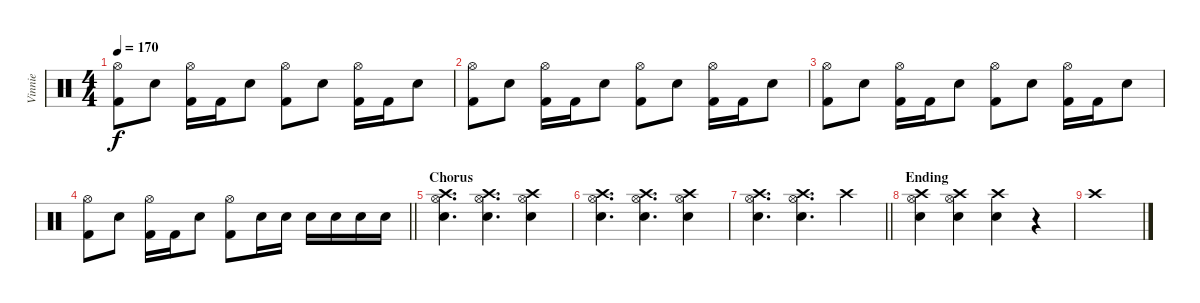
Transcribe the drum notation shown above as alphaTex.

\track ("Vinnie" "Vinnie") {instrument percussion}
\staff {score}
\articulation defaults
\ts (4 4)
\tempo 170
\clef neutral
\ks c
("Hi-Hat (open)" "Kick (hit) 2").8{dy f} "Electric Snare (hit)".8 ("Hi-Hat (open)" "Kick (hit) 2").16 "Kick (hit) 2".16 "Electric Snare (hit)".8 ("Hi-Hat (open)" "Kick (hit) 2").8 "Electric Snare (hit)".8 ("Hi-Hat (open)" "Kick (hit) 2").16 "Kick (hit) 2".16 "Electric Snare (hit)".8 |
("Hi-Hat (open)" "Kick (hit) 2").8 "Electric Snare (hit)".8 ("Hi-Hat (open)" "Kick (hit) 2").16 "Kick (hit) 2".16 "Electric Snare (hit)".8 ("Hi-Hat (open)" "Kick (hit) 2").8 "Electric Snare (hit)".8 ("Hi-Hat (open)" "Kick (hit) 2").16 "Kick (hit) 2".16 "Electric Snare (hit)".8 |
("Hi-Hat (open)" "Kick (hit) 2").8 "Electric Snare (hit)".8 ("Hi-Hat (open)" "Kick (hit) 2").16 "Kick (hit) 2".16 "Electric Snare (hit)".8 ("Hi-Hat (open)" "Kick (hit) 2").8 "Electric Snare (hit)".8 ("Hi-Hat (open)" "Kick (hit) 2").16 "Kick (hit) 2".16 "Electric Snare (hit)".8 |
\barLineRight lightlight
("Hi-Hat (open)" "Kick (hit) 2").8 "Electric Snare (hit)".8 ("Hi-Hat (open)" "Kick (hit) 2").16 "Kick (hit) 2".16 "Electric Snare (hit)".8 ("Hi-Hat (open)" "Kick (hit) 2").8 "Electric Snare (hit)".16 "Electric Snare (hit)".16 "Electric Snare (hit)".16 "Electric Snare (hit)".16 "Electric Snare (hit)".16 "Electric Snare (hit)".16 |
\section ("" "Chorus")
("Crash high (hit)" "Hi-Hat (open)" "Electric Snare (hit)").4{d} ("Crash high (hit)" "Hi-Hat (open)" "Electric Snare (hit)").4{d} ("Crash high (hit)" "Hi-Hat (open)" "Electric Snare (hit)").4 |
("Crash high (hit)" "Hi-Hat (open)" "Electric Snare (hit)").4{d} ("Crash high (hit)" "Hi-Hat (open)" "Electric Snare (hit)").4{d} ("Crash high (hit)" "Hi-Hat (open)" "Electric Snare (hit)").4 |
\barLineRight lightlight
("Crash high (hit)" "Hi-Hat (open)" "Electric Snare (hit)").4{d} ("Crash high (hit)" "Hi-Hat (open)" "Electric Snare (hit)").4{d} "Crash high (hit)".4 |
\section ("" "Ending")
("Crash high (hit)" "Hi-Hat (open)" "Electric Snare (hit)").4 ("Crash high (hit)" "Hi-Hat (open)" "Electric Snare (hit)").4 ("Crash high (hit)" "Electric Snare (hit)").4 r.4 |
"Crash high (hit)".1
